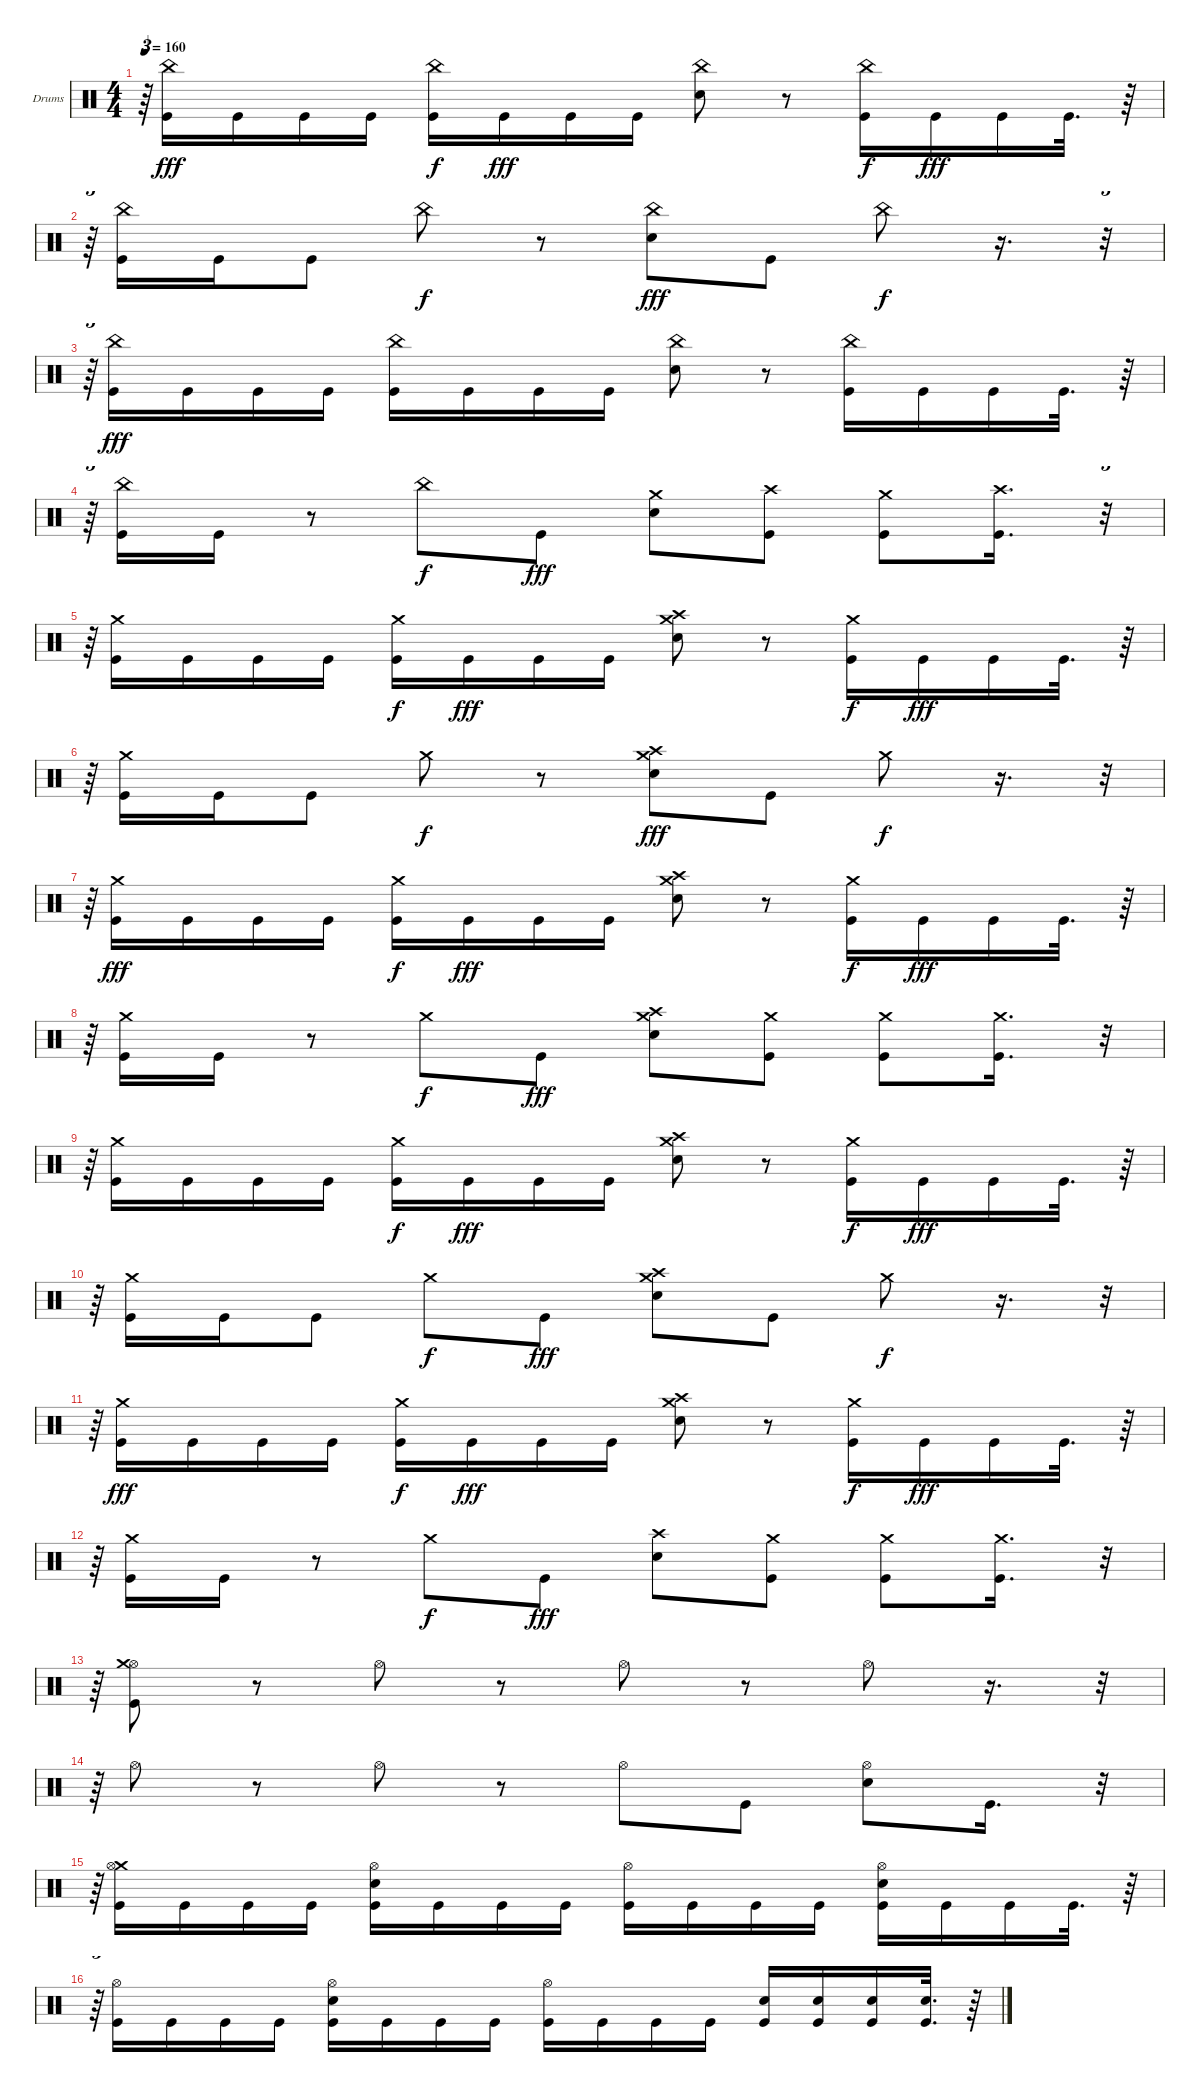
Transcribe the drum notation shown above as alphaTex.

\bracketExtendMode groupsimilarinstruments
\firstSystemTrackNameOrientation horizontal
\otherSystemsTrackNameOrientation horizontal
\track ("Drums" "Drums") {instrument percussion}
\staff {score}
\articulation defaults
\ts (4 4)
\tempo 160
\clef neutral
\ks c
r.64{tu (3 2) dy fff} ("China (hit)" "Kick (hit)").16 "Kick (hit)".16 "Kick (hit)".16 "Kick (hit)".16 ("China (hit)" "Kick (hit)").16{dy f} "Kick (hit)".16{dy fff} "Kick (hit)".16 "Kick (hit)".16 ("Snare (hit) 2" "China (hit)").8 r.8 ("China (hit)" "Kick (hit)").16{dy f} "Kick (hit)".16{dy fff} "Kick (hit)".16 "Kick (hit)".32{d} r.64 |
r.64{tu (3 2)} ("China (hit)" "Kick (hit)").16 "Kick (hit)".16 "Kick (hit)".8 "China (hit)".8{dy f} r.8 ("China (hit)" "Snare (hit) 2").8{dy fff} "Kick (hit)".8 "China (hit)".8{dy f} r.16{d} r.32{tu (3 2)} |
r.64{tu (3 2)} ("China (hit)" "Kick (hit)").16{dy fff} "Kick (hit)".16 "Kick (hit)".16 "Kick (hit)".16 ("Kick (hit)" "China (hit)").16 "Kick (hit)".16 "Kick (hit)".16 "Kick (hit)".16 ("Snare (hit) 2" "China (hit)").8 r.8 ("Kick (hit)" "China (hit)").16 "Kick (hit)".16 "Kick (hit)".16 "Kick (hit)".32{d} r.64 |
r.64{tu (3 2)} ("China (hit)" "Kick (hit)").16 "Kick (hit)".16 r.8 "China (hit)".8{dy f} "Kick (hit)".8{dy fff} ("Crash medium (hit)" "Snare (hit) 2").8 ("Crash high (hit)" "Kick (hit)").8 ("Crash medium (hit)" "Kick (hit)").8 ("Crash high (hit)" "Kick (hit)").16{d} r.32{tu (3 2)} |
r.64{tu (3 2)} ("Crash medium (hit)" "Kick (hit)").16 "Kick (hit)".16 "Kick (hit)".16 "Kick (hit)".16 ("Crash medium (hit)" "Kick (hit)").16{dy f} "Kick (hit)".16{dy fff} "Kick (hit)".16 "Kick (hit)".16 ("Crash high (hit)" "Crash medium (hit)" "Snare (hit) 2").8 r.8 ("Crash medium (hit)" "Kick (hit)").16{dy f} "Kick (hit)".16{dy fff} "Kick (hit)".16 "Kick (hit)".32{d} r.64 |
r.64{tu (3 2)} ("Crash medium (hit)" "Kick (hit)").16 "Kick (hit)".16 "Kick (hit)".8 "Crash medium (hit)".8{dy f} r.8 ("Crash high (hit)" "Crash medium (hit)" "Snare (hit) 2").8{dy fff} "Kick (hit)".8 "Crash medium (hit)".8{dy f} r.16{d} r.32{tu (3 2)} |
r.64{tu (3 2)} ("Crash medium (hit)" "Kick (hit)").16{dy fff} "Kick (hit)".16 "Kick (hit)".16 "Kick (hit)".16 ("Crash medium (hit)" "Kick (hit)").16{dy f} "Kick (hit)".16{dy fff} "Kick (hit)".16 "Kick (hit)".16 ("Crash high (hit)" "Crash medium (hit)" "Snare (hit) 2").8 r.8 ("Crash medium (hit)" "Kick (hit)").16{dy f} "Kick (hit)".16{dy fff} "Kick (hit)".16 "Kick (hit)".32{d} r.64 |
r.64{tu (3 2)} ("Crash medium (hit)" "Kick (hit)").16 "Kick (hit)".16 r.8 "Crash medium (hit)".8{dy f} "Kick (hit)".8{dy fff} ("Crash high (hit)" "Crash medium (hit)" "Snare (hit) 2").8 ("Crash medium (hit)" "Kick (hit)").8 ("Crash medium (hit)" "Kick (hit)").8 ("Crash medium (hit)" "Kick (hit)").16{d} r.32{tu (3 2)} |
r.64{tu (3 2)} ("Crash medium (hit)" "Kick (hit)").16 "Kick (hit)".16 "Kick (hit)".16 "Kick (hit)".16 ("Crash medium (hit)" "Kick (hit)").16{dy f} "Kick (hit)".16{dy fff} "Kick (hit)".16 "Kick (hit)".16 ("Crash high (hit)" "Crash medium (hit)" "Snare (hit) 2").8 r.8 ("Crash medium (hit)" "Kick (hit)").16{dy f} "Kick (hit)".16{dy fff} "Kick (hit)".16 "Kick (hit)".32{d} r.64 |
r.64{tu (3 2)} ("Crash medium (hit)" "Kick (hit)").16 "Kick (hit)".16 "Kick (hit)".8 "Crash medium (hit)".8{dy f} "Kick (hit)".8{dy fff} ("Crash high (hit)" "Crash medium (hit)" "Snare (hit) 2").8 "Kick (hit)".8 "Crash medium (hit)".8{dy f} r.16{d} r.32{tu (3 2)} |
r.64{tu (3 2)} ("Crash medium (hit)" "Kick (hit)").16{dy fff} "Kick (hit)".16 "Kick (hit)".16 "Kick (hit)".16 ("Crash medium (hit)" "Kick (hit)").16{dy f} "Kick (hit)".16{dy fff} "Kick (hit)".16 "Kick (hit)".16 ("Crash high (hit)" "Crash medium (hit)" "Snare (hit) 2").8 r.8 ("Crash medium (hit)" "Kick (hit)").16{dy f} "Kick (hit)".16{dy fff} "Kick (hit)".16 "Kick (hit)".32{d} r.64 |
r.64{tu (3 2)} ("Crash medium (hit)" "Kick (hit)").16 "Kick (hit)".16 r.8 "Crash medium (hit)".8{dy f} "Kick (hit)".8{dy fff} ("Crash high (hit)" "Snare (hit) 2").8 ("Crash medium (hit)" "Kick (hit)").8 ("Crash medium (hit)" "Kick (hit)").8 ("Crash medium (hit)" "Kick (hit)").16{d} r.32{tu (3 2)} |
r.64{tu (3 2)} ("Hi-Hat (open)" "Kick (hit)" "Crash medium (hit)").8 r.8 "Hi-Hat (open)".8 r.8 "Hi-Hat (open)".8 r.8 "Hi-Hat (open)".8 r.16{d} r.32{tu (3 2)} |
r.64{tu (3 2)} "Hi-Hat (open)".8 r.8 "Hi-Hat (open)".8 r.8 "Hi-Hat (open)".8 "Kick (hit)".8 ("Snare (hit) 2" "Hi-Hat (open)").8 "Kick (hit)".16{d} r.32{tu (3 2)} |
r.64{tu (3 2)} ("Kick (hit)" "Crash medium (hit)" "Hi-Hat (open)").16 "Kick (hit)".16 "Kick (hit)".16 "Kick (hit)".16 ("Kick (hit)" "Snare (hit) 2" "Hi-Hat (open)").16 "Kick (hit)".16 "Kick (hit)".16 "Kick (hit)".16 ("Kick (hit)" "Hi-Hat (open)").16 "Kick (hit)".16 "Kick (hit)".16 "Kick (hit)".16 ("Kick (hit)" "Snare (hit) 2" "Hi-Hat (open)").16 "Kick (hit)".16 "Kick (hit)".16 "Kick (hit)".32{d} r.64 |
r.64{tu (3 2)} ("Kick (hit)" "Hi-Hat (open)").16 "Kick (hit)".16 "Kick (hit)".16 "Kick (hit)".16 ("Kick (hit)" "Snare (hit) 2" "Hi-Hat (open)").16 "Kick (hit)".16 "Kick (hit)".16 "Kick (hit)".16 ("Kick (hit)" "Hi-Hat (open)").16 "Kick (hit)".16 "Kick (hit)".16 "Kick (hit)".16 ("Kick (hit)" "Snare (hit) 2").16 ("Kick (hit)" "Snare (hit) 2").16 ("Kick (hit)" "Snare (hit) 2").16 ("Kick (hit)" "Snare (hit) 2").32{d} r.64
